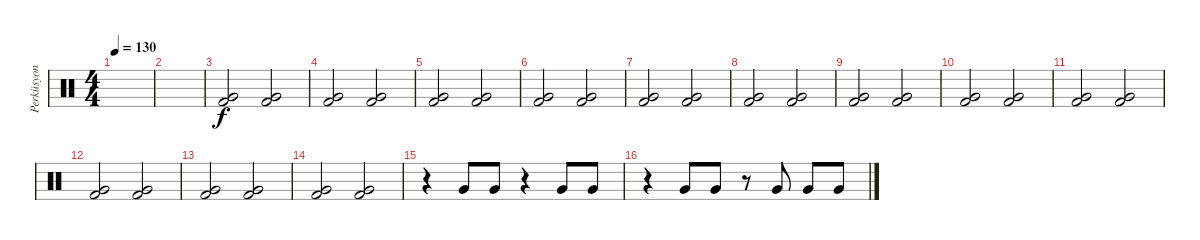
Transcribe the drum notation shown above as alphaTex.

\track ("Perküsyon" "Perküsyon") {instrument percussion}
\staff {score}
\articulation defaults
\ts (4 4)
\tempo 130
\clef neutral
\ks c
|
|
("Very Low Tom (hit)" "Kick (hit) 2").2 ("Very Low Tom (hit)" "Kick (hit) 2").2 |
("Very Low Tom (hit)" "Kick (hit) 2").2 ("Very Low Tom (hit)" "Kick (hit) 2").2 |
("Very Low Tom (hit)" "Kick (hit) 2").2 ("Very Low Tom (hit)" "Kick (hit) 2").2 |
("Very Low Tom (hit)" "Kick (hit) 2").2 ("Very Low Tom (hit)" "Kick (hit) 2").2 |
("Very Low Tom (hit)" "Kick (hit) 2").2 ("Very Low Tom (hit)" "Kick (hit) 2").2 |
("Very Low Tom (hit)" "Kick (hit) 2").2 ("Very Low Tom (hit)" "Kick (hit) 2").2 |
("Very Low Tom (hit)" "Kick (hit) 2").2 ("Very Low Tom (hit)" "Kick (hit) 2").2 |
("Very Low Tom (hit)" "Kick (hit) 2").2 ("Very Low Tom (hit)" "Kick (hit) 2").2 |
("Very Low Tom (hit)" "Kick (hit) 2").2 ("Very Low Tom (hit)" "Kick (hit) 2").2 |
("Very Low Tom (hit)" "Kick (hit) 2").2 ("Very Low Tom (hit)" "Kick (hit) 2").2 |
("Very Low Tom (hit)" "Kick (hit) 2").2 ("Very Low Tom (hit)" "Kick (hit) 2").2 |
("Very Low Tom (hit)" "Kick (hit) 2").2 ("Very Low Tom (hit)" "Kick (hit) 2").2 |
r.4 "Very Low Tom (hit)".8 "Very Low Tom (hit)".8 r.4 "Very Low Tom (hit)".8 "Very Low Tom (hit)".8 |
r.4 "Very Low Tom (hit)".8 "Very Low Tom (hit)".8 r.8 "Very Low Tom (hit)".8 "Very Low Tom (hit)".8 "Very Low Tom (hit)".8
